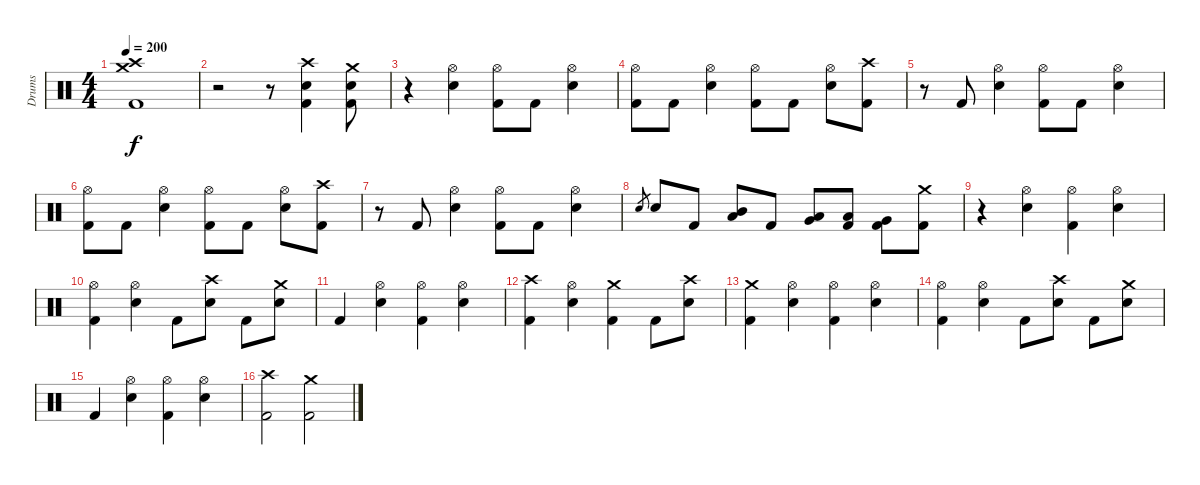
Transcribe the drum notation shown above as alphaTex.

\track ("Drums" "Drums") {instrument percussion}
\staff {score}
\articulation defaults
\ts (4 4)
\tempo 200
\clef neutral
\ks c
("Crash medium (hit)" "Crash high (hit)" "Kick (hit) 2").1{dy f} |
r.2 r.8 ("Crash high (hit)" "Electric Snare (hit)" "Kick (hit) 2").4 ("Crash medium (hit)" "Electric Snare (hit)" "Kick (hit) 2").8 |
r.4 ("Hi-Hat (open)" "Electric Snare (hit)").4 ("Hi-Hat (open)" "Kick (hit) 2").8 "Kick (hit) 2".8 ("Hi-Hat (open)" "Electric Snare (hit)").4 |
("Hi-Hat (open)" "Kick (hit) 2").8 "Kick (hit) 2".8 ("Hi-Hat (open)" "Electric Snare (hit)").4 ("Hi-Hat (open)" "Kick (hit) 2").8 "Kick (hit) 2".8 ("Hi-Hat (open)" "Electric Snare (hit)").8 ("Crash high (hit)" "Kick (hit) 2").8 |
r.8 "Kick (hit) 2".8 ("Hi-Hat (open)" "Electric Snare (hit)").4 ("Hi-Hat (open)" "Kick (hit) 2").8 "Kick (hit) 2".8 ("Hi-Hat (open)" "Electric Snare (hit)").4 |
("Hi-Hat (open)" "Kick (hit) 2").8 "Kick (hit) 2".8 ("Hi-Hat (open)" "Electric Snare (hit)").4 ("Hi-Hat (open)" "Kick (hit) 2").8 "Kick (hit) 2".8 ("Hi-Hat (open)" "Electric Snare (hit)").8 ("Crash high (hit)" "Kick (hit) 2").8 |
r.8 "Kick (hit) 2".8 ("Hi-Hat (open)" "Electric Snare (hit)").4 ("Hi-Hat (open)" "Kick (hit) 2").8 "Kick (hit) 2".8 ("Hi-Hat (open)" "Electric Snare (hit)").4 |
"Electric Snare (hit)".8{gr} "Electric Snare (hit)".8 "Kick (hit) 2".8 ("Low Tom (hit)" "Mid Tom (hit)").8{bd 240} "Kick (hit) 2".8 ("Very Low Tom (hit)" "Low Tom (hit)").8{bd 240} ("Low Tom (hit)" "Kick (hit) 2").8 ("Very Low Tom (hit)" "Kick (hit) 2").8 ("Crash medium (hit)" "Kick (hit) 2").8 |
r.4 ("Hi-Hat (open)" "Electric Snare (hit)").4 ("Hi-Hat (open)" "Kick (hit) 2").4 ("Hi-Hat (open)" "Electric Snare (hit)").4 |
("Hi-Hat (open)" "Kick (hit) 2").4 ("Hi-Hat (open)" "Electric Snare (hit)").4 "Kick (hit) 2".8 ("Crash high (hit)" "Electric Snare (hit)").8 "Kick (hit) 2".8 ("Crash medium (hit)" "Electric Snare (hit)").8 |
"Kick (hit) 2".4 ("Hi-Hat (open)" "Electric Snare (hit)").4 ("Hi-Hat (open)" "Kick (hit) 2").4 ("Hi-Hat (open)" "Electric Snare (hit)").4 |
("Crash high (hit)" "Kick (hit) 2").4 ("Hi-Hat (open)" "Electric Snare (hit)").4 ("Crash medium (hit)" "Kick (hit) 2").4 "Kick (hit) 2".8 ("Crash high (hit)" "Electric Snare (hit)").8 |
("Crash medium (hit)" "Kick (hit) 2").4 ("Hi-Hat (open)" "Electric Snare (hit)").4 ("Hi-Hat (open)" "Kick (hit) 2").4 ("Hi-Hat (open)" "Electric Snare (hit)").4 |
("Hi-Hat (open)" "Kick (hit) 2").4 ("Hi-Hat (open)" "Electric Snare (hit)").4 "Kick (hit) 2".8 ("Crash high (hit)" "Electric Snare (hit)").8 "Kick (hit) 2".8 ("Crash medium (hit)" "Electric Snare (hit)").8 |
"Kick (hit) 2".4 ("Hi-Hat (open)" "Electric Snare (hit)").4 ("Hi-Hat (open)" "Kick (hit) 2").4 ("Hi-Hat (open)" "Electric Snare (hit)").4 |
("Crash high (hit)" "Kick (hit) 2").2 ("Crash medium (hit)" "Kick (hit) 2").2
